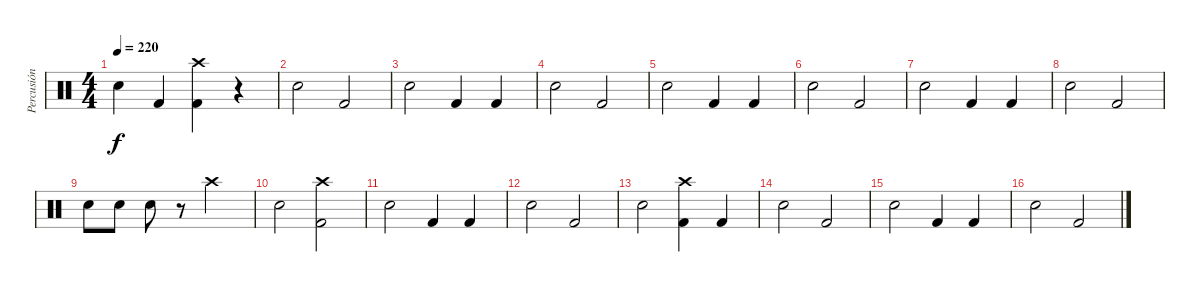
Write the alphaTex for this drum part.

\track ("Percusión" "Percusión") {instrument percussion}
\staff {score}
\articulation defaults
\ts (4 4)
\tempo 220
\clef neutral
\ks c "Electric Snare (hit)".4{dy f} "Kick (hit) 2".4
("Crash high (hit)" "Kick (hit) 2").4 r.4 |
"Electric Snare (hit)".2 "Kick (hit) 2".2 |
"Electric Snare (hit)".2 "Kick (hit) 2".4 "Kick (hit) 2".4 |
"Electric Snare (hit)".2 "Kick (hit) 2".2 |
"Electric Snare (hit)".2 "Kick (hit) 2".4 "Kick (hit) 2".4 |
"Electric Snare (hit)".2 "Kick (hit) 2".2 |
"Electric Snare (hit)".2 "Kick (hit) 2".4 "Kick (hit) 2".4 |
"Electric Snare (hit)".2 "Kick (hit) 2".2 |
"Electric Snare (hit)".8 "Electric Snare (hit)".8 "Electric Snare (hit)".8 r.8 "Crash high (hit)".2 |
"Electric Snare (hit)".2 ("Crash high (hit)" "Kick (hit) 2").2 |
"Electric Snare (hit)".2 "Kick (hit) 2".4 "Kick (hit) 2".4 |
"Electric Snare (hit)".2 "Kick (hit) 2".2 |
"Electric Snare (hit)".2 ("Crash high (hit)" "Kick (hit) 2").4 "Kick (hit) 2".4 |
"Electric Snare (hit)".2 "Kick (hit) 2".2 |
"Electric Snare (hit)".2 "Kick (hit) 2".4 "Kick (hit) 2".4 |
"Electric Snare (hit)".2 "Kick (hit) 2".2
